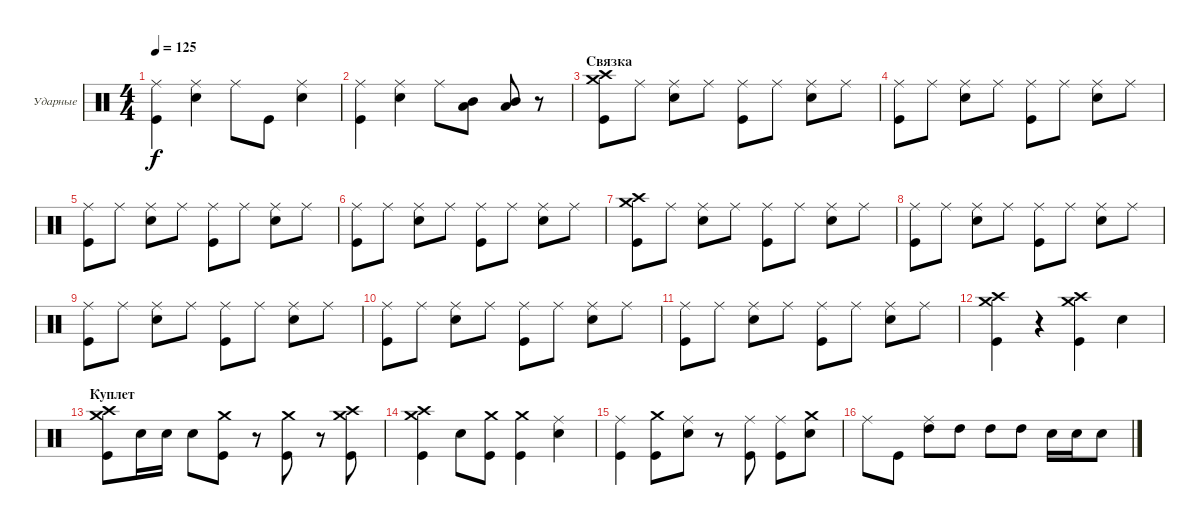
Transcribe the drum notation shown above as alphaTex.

\bracketExtendMode groupsimilarinstruments
\firstSystemTrackNameOrientation horizontal
\otherSystemsTrackNameOrientation horizontal
\track ("Максим Удалов" "Ударные") {instrument percussion}
\staff {score}
\articulation defaults
\ts (4 4)
\tempo 125
\clef neutral
\ks c
("Kick (hit)" "Ride (middle)").4{dy f} ("Snare (hit) 2" "Ride (middle)").4 "Ride (middle)".8 "Kick (hit)".8 ("Snare (hit) 2" "Ride (middle)").4 |
("Kick (hit)" "Ride (middle)").4 ("Snare (hit) 2" "Ride (middle)").4 "Ride (middle)".8 ("Mid Tom (hit)" "Low Tom (hit)").8 ("Mid Tom (hit)" "Low Tom (hit)").8 r.8 |
\section ("" "Связка")
("Kick (hit)" "Crash medium (hit)" "Crash high (hit)").8 "Ride (middle)".8 ("Snare (hit) 2" "Ride (middle)").8 "Ride (middle)".8 ("Kick (hit)" "Ride (middle)").8 "Ride (middle)".8 ("Snare (hit) 2" "Ride (middle)").8 "Ride (middle)".8 |
("Kick (hit)" "Ride (middle)").8 "Ride (middle)".8 ("Snare (hit) 2" "Ride (middle)").8 "Ride (middle)".8 ("Kick (hit)" "Ride (middle)").8 "Ride (middle)".8 ("Snare (hit) 2" "Ride (middle)").8 "Ride (middle)".8 |
("Kick (hit)" "Ride (middle)").8 "Ride (middle)".8 ("Snare (hit) 2" "Ride (middle)").8 "Ride (middle)".8 ("Kick (hit)" "Ride (middle)").8 "Ride (middle)".8 ("Snare (hit) 2" "Ride (middle)").8 "Ride (middle)".8 |
("Kick (hit)" "Ride (middle)").8 "Ride (middle)".8 ("Snare (hit) 2" "Ride (middle)").8 "Ride (middle)".8 ("Kick (hit)" "Ride (middle)").8 "Ride (middle)".8 ("Snare (hit) 2" "Ride (middle)").8 "Ride (middle)".8 |
("Kick (hit)" "Crash medium (hit)" "Crash high (hit)").8 "Ride (middle)".8 ("Snare (hit) 2" "Ride (middle)").8 "Ride (middle)".8 ("Kick (hit)" "Ride (middle)").8 "Ride (middle)".8 ("Snare (hit) 2" "Ride (middle)").8 "Ride (middle)".8 |
("Kick (hit)" "Ride (middle)").8 "Ride (middle)".8 ("Snare (hit) 2" "Ride (middle)").8 "Ride (middle)".8 ("Kick (hit)" "Ride (middle)").8 "Ride (middle)".8 ("Snare (hit) 2" "Ride (middle)").8 "Ride (middle)".8 |
("Kick (hit)" "Ride (middle)").8 "Ride (middle)".8 ("Snare (hit) 2" "Ride (middle)").8 "Ride (middle)".8 ("Kick (hit)" "Ride (middle)").8 "Ride (middle)".8 ("Snare (hit) 2" "Ride (middle)").8 "Ride (middle)".8 |
("Kick (hit)" "Ride (middle)").8 "Ride (middle)".8 ("Snare (hit) 2" "Ride (middle)").8 "Ride (middle)".8 ("Kick (hit)" "Ride (middle)").8 "Ride (middle)".8 ("Snare (hit) 2" "Ride (middle)").8 "Ride (middle)".8 |
("Kick (hit)" "Ride (middle)").8 "Ride (middle)".8 ("Snare (hit) 2" "Ride (middle)").8 "Ride (middle)".8 ("Kick (hit)" "Ride (middle)").8 "Ride (middle)".8 ("Snare (hit) 2" "Ride (middle)").8 "Ride (middle)".8 |
("Kick (hit)" "Crash medium (hit)" "Crash high (hit)").4 r.4 ("Kick (hit)" "Crash high (hit)" "Crash medium (hit)").4 "Snare (hit) 2".4 |
\section ("" "Куплет")
("Kick (hit)" "Crash medium (hit)" "Crash high (hit)").8 "Snare (hit) 2".16 "Snare (hit) 2".16 "Snare (hit) 2".8 ("Kick (hit)" "Crash medium (hit)").8 r.8 ("Kick (hit)" "Crash medium (hit)").8 r.8 ("Kick (hit)" "Crash high (hit)" "Crash medium (hit)").8 |
("Kick (hit)" "Crash medium (hit)" "Crash high (hit)").4 "Snare (hit) 2".8 ("Kick (hit)" "Crash medium (hit)").8 ("Kick (hit)" "Crash medium (hit)").4 ("Snare (hit) 2" "Ride (middle)").4 |
("Kick (hit)" "Ride (middle)").4 ("Kick (hit)" "Crash medium (hit)").8 ("Snare (hit) 2" "Ride (middle)").8 r.8 ("Kick (hit)" "Ride (middle)").8 ("Kick (hit)" "Ride (middle)").8 ("Snare (hit) 2" "Crash medium (hit)").8 |
"Ride (middle)".8 "Kick (hit)".8 ("High Tom (hit)" "Ride (middle)").8 "High Tom (hit)".8 "High Tom (hit)".8 "High Tom (hit)".8 "Snare (hit) 2".16 "Snare (hit) 2".16 "Snare (hit) 2".8
